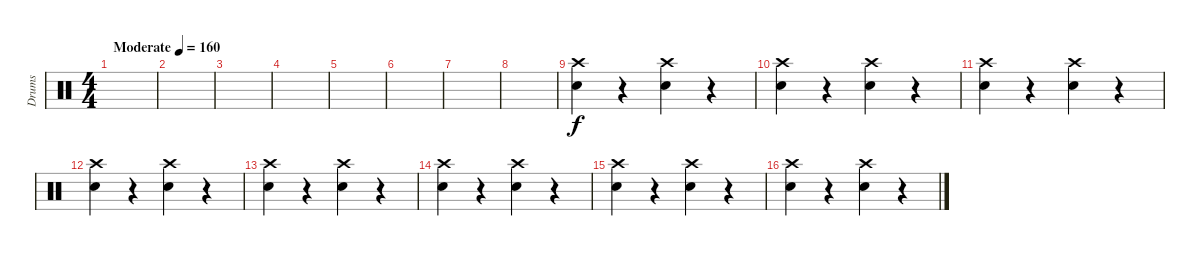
\track ("Drums" "Drums") {instrument percussion}
\staff {score}
\articulation defaults
\ts (4 4)
\tempo (160 "Moderate")
\clef neutral
\ks c
|
|
|
|
|
|
|
|
("Crash high (hit)" "Snare (hit) 2").4 r.4 ("Crash high (hit)" "Snare (hit) 2").4 r.4 |
("Crash high (hit)" "Snare (hit) 2").4 r.4 ("Crash high (hit)" "Snare (hit) 2").4 r.4 |
("Crash high (hit)" "Snare (hit) 2").4 r.4 ("Crash high (hit)" "Snare (hit) 2").4 r.4 |
("Crash high (hit)" "Snare (hit) 2").4 r.4 ("Crash high (hit)" "Snare (hit) 2").4 r.4 |
("Crash high (hit)" "Snare (hit) 2").4 r.4 ("Crash high (hit)" "Snare (hit) 2").4 r.4 |
("Crash high (hit)" "Snare (hit) 2").4 r.4 ("Crash high (hit)" "Snare (hit) 2").4 r.4 |
("Crash high (hit)" "Snare (hit) 2").4 r.4 ("Crash high (hit)" "Snare (hit) 2").4 r.4 |
("Crash high (hit)" "Snare (hit) 2").4 r.4 ("Crash high (hit)" "Snare (hit) 2").4 r.4
